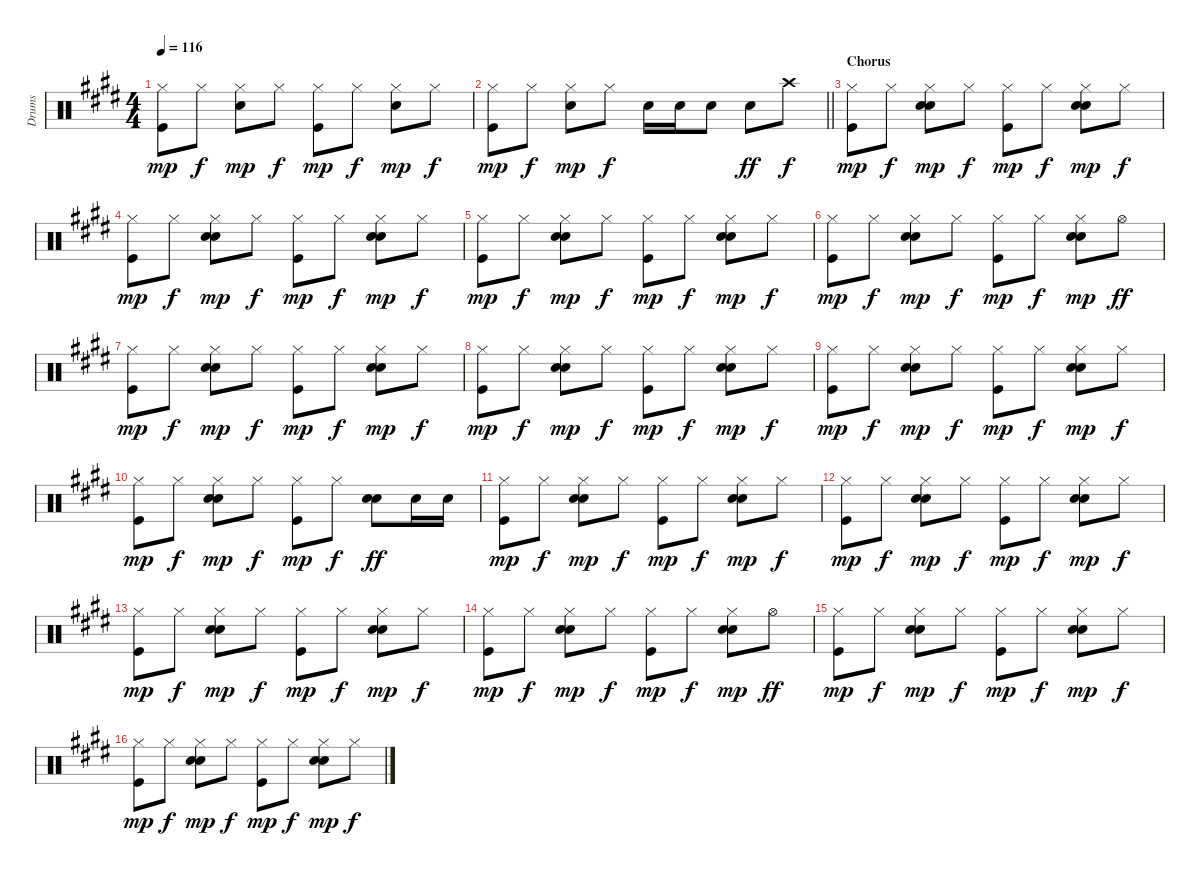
\track ("Drums" "Drums") {instrument percussion}
\staff {score}
\articulation defaults
\ts (4 4)
\tempo 116
\clef neutral
\ks e
("Kick (hit)" "Hi-Hat (closed)").8{dy mp} "Hi-Hat (closed)".8{dy f} ("Electric Snare (hit)" "Hi-Hat (closed)").8{dy mp} "Hi-Hat (closed)".8{dy f} ("Kick (hit)" "Hi-Hat (closed)").8{dy mp} "Hi-Hat (closed)".8{dy f} ("Electric Snare (hit)" "Hi-Hat (closed)").8{dy mp} "Hi-Hat (closed)".8{dy f} |
\barLineRight lightlight
("Kick (hit)" "Hi-Hat (closed)").8{dy mp} "Hi-Hat (closed)".8{dy f} ("Electric Snare (hit)" "Hi-Hat (closed)").8{dy mp} "Hi-Hat (closed)".8{dy f} "Electric Snare (hit)".16 "Electric Snare (hit)".16 "Electric Snare (hit)".8 "Electric Snare (hit)".8{dy ff} "Crash high (hit)".8{dy f} |
\section ("" "Chorus")
("Kick (hit)" "Hi-Hat (closed)").8{dy mp} "Hi-Hat (closed)".8{dy f} ("Hand Clap (hit)" "Electric Snare (hit)" "Hi-Hat (closed)").8{dy mp} "Hi-Hat (closed)".8{dy f} ("Kick (hit)" "Hi-Hat (closed)").8{dy mp} "Hi-Hat (closed)".8{dy f} ("Hand Clap (hit)" "Electric Snare (hit)" "Hi-Hat (closed)").8{dy mp} "Hi-Hat (closed)".8{dy f} |
("Kick (hit)" "Hi-Hat (closed)").8{dy mp} "Hi-Hat (closed)".8{dy f} ("Hand Clap (hit)" "Electric Snare (hit)" "Hi-Hat (closed)").8{dy mp} "Hi-Hat (closed)".8{dy f} ("Kick (hit)" "Hi-Hat (closed)").8{dy mp} "Hi-Hat (closed)".8{dy f} ("Hand Clap (hit)" "Electric Snare (hit)" "Hi-Hat (closed)").8{dy mp} "Hi-Hat (closed)".8{dy f} |
("Kick (hit)" "Hi-Hat (closed)").8{dy mp} "Hi-Hat (closed)".8{dy f} ("Hand Clap (hit)" "Electric Snare (hit)" "Hi-Hat (closed)").8{dy mp} "Hi-Hat (closed)".8{dy f} ("Kick (hit)" "Hi-Hat (closed)").8{dy mp} "Hi-Hat (closed)".8{dy f} ("Hand Clap (hit)" "Electric Snare (hit)" "Hi-Hat (closed)").8{dy mp} "Hi-Hat (closed)".8{dy f} |
("Kick (hit)" "Hi-Hat (closed)").8{dy mp} "Hi-Hat (closed)".8{dy f} ("Hand Clap (hit)" "Electric Snare (hit)" "Hi-Hat (closed)").8{dy mp} "Hi-Hat (closed)".8{dy f} ("Kick (hit)" "Hi-Hat (closed)").8{dy mp} "Hi-Hat (closed)".8{dy f} ("Hand Clap (hit)" "Electric Snare (hit)" "Hi-Hat (closed)").8{dy mp} "Hi-Hat (open)".8{dy ff} |
("Kick (hit)" "Hi-Hat (closed)").8{dy mp} "Hi-Hat (closed)".8{dy f} ("Hand Clap (hit)" "Electric Snare (hit)" "Hi-Hat (closed)").8{dy mp} "Hi-Hat (closed)".8{dy f} ("Kick (hit)" "Hi-Hat (closed)").8{dy mp} "Hi-Hat (closed)".8{dy f} ("Hand Clap (hit)" "Electric Snare (hit)" "Hi-Hat (closed)").8{dy mp} "Hi-Hat (closed)".8{dy f} |
("Kick (hit)" "Hi-Hat (closed)").8{dy mp} "Hi-Hat (closed)".8{dy f} ("Hand Clap (hit)" "Electric Snare (hit)" "Hi-Hat (closed)").8{dy mp} "Hi-Hat (closed)".8{dy f} ("Kick (hit)" "Hi-Hat (closed)").8{dy mp} "Hi-Hat (closed)".8{dy f} ("Hand Clap (hit)" "Electric Snare (hit)" "Hi-Hat (closed)").8{dy mp} "Hi-Hat (closed)".8{dy f} |
("Kick (hit)" "Hi-Hat (closed)").8{dy mp} "Hi-Hat (closed)".8{dy f} ("Hand Clap (hit)" "Electric Snare (hit)" "Hi-Hat (closed)").8{dy mp} "Hi-Hat (closed)".8{dy f} ("Kick (hit)" "Hi-Hat (closed)").8{dy mp} "Hi-Hat (closed)".8{dy f} ("Hand Clap (hit)" "Electric Snare (hit)" "Hi-Hat (closed)").8{dy mp} "Hi-Hat (closed)".8{dy f} |
("Kick (hit)" "Hi-Hat (closed)").8{dy mp} "Hi-Hat (closed)".8{dy f} ("Hand Clap (hit)" "Electric Snare (hit)" "Hi-Hat (closed)").8{dy mp} "Hi-Hat (closed)".8{dy f} ("Kick (hit)" "Hi-Hat (closed)").8{dy mp} "Hi-Hat (closed)".8{dy f} ("Hand Clap (hit)" "Electric Snare (hit)").8{dy ff} "Electric Snare (hit)".16 "Electric Snare (hit)".16 |
("Kick (hit)" "Hi-Hat (closed)").8{dy mp} "Hi-Hat (closed)".8{dy f} ("Hand Clap (hit)" "Electric Snare (hit)" "Hi-Hat (closed)").8{dy mp} "Hi-Hat (closed)".8{dy f} ("Kick (hit)" "Hi-Hat (closed)").8{dy mp} "Hi-Hat (closed)".8{dy f} ("Hand Clap (hit)" "Electric Snare (hit)" "Hi-Hat (closed)").8{dy mp} "Hi-Hat (closed)".8{dy f} |
("Kick (hit)" "Hi-Hat (closed)").8{dy mp} "Hi-Hat (closed)".8{dy f} ("Hand Clap (hit)" "Electric Snare (hit)" "Hi-Hat (closed)").8{dy mp} "Hi-Hat (closed)".8{dy f} ("Kick (hit)" "Hi-Hat (closed)").8{dy mp} "Hi-Hat (closed)".8{dy f} ("Hand Clap (hit)" "Electric Snare (hit)" "Hi-Hat (closed)").8{dy mp} "Hi-Hat (closed)".8{dy f} |
("Kick (hit)" "Hi-Hat (closed)").8{dy mp} "Hi-Hat (closed)".8{dy f} ("Hand Clap (hit)" "Electric Snare (hit)" "Hi-Hat (closed)").8{dy mp} "Hi-Hat (closed)".8{dy f} ("Kick (hit)" "Hi-Hat (closed)").8{dy mp} "Hi-Hat (closed)".8{dy f} ("Hand Clap (hit)" "Electric Snare (hit)" "Hi-Hat (closed)").8{dy mp} "Hi-Hat (closed)".8{dy f} |
("Kick (hit)" "Hi-Hat (closed)").8{dy mp} "Hi-Hat (closed)".8{dy f} ("Hand Clap (hit)" "Electric Snare (hit)" "Hi-Hat (closed)").8{dy mp} "Hi-Hat (closed)".8{dy f} ("Kick (hit)" "Hi-Hat (closed)").8{dy mp} "Hi-Hat (closed)".8{dy f} ("Hand Clap (hit)" "Electric Snare (hit)" "Hi-Hat (closed)").8{dy mp} "Hi-Hat (open)".8{dy ff} |
("Kick (hit)" "Hi-Hat (closed)").8{dy mp} "Hi-Hat (closed)".8{dy f} ("Hand Clap (hit)" "Electric Snare (hit)" "Hi-Hat (closed)").8{dy mp} "Hi-Hat (closed)".8{dy f} ("Kick (hit)" "Hi-Hat (closed)").8{dy mp} "Hi-Hat (closed)".8{dy f} ("Hand Clap (hit)" "Electric Snare (hit)" "Hi-Hat (closed)").8{dy mp} "Hi-Hat (closed)".8{dy f} |
("Kick (hit)" "Hi-Hat (closed)").8{dy mp} "Hi-Hat (closed)".8{dy f} ("Hand Clap (hit)" "Electric Snare (hit)" "Hi-Hat (closed)").8{dy mp} "Hi-Hat (closed)".8{dy f} ("Kick (hit)" "Hi-Hat (closed)").8{dy mp} "Hi-Hat (closed)".8{dy f} ("Hand Clap (hit)" "Electric Snare (hit)" "Hi-Hat (closed)").8{dy mp} "Hi-Hat (closed)".8{dy f}
